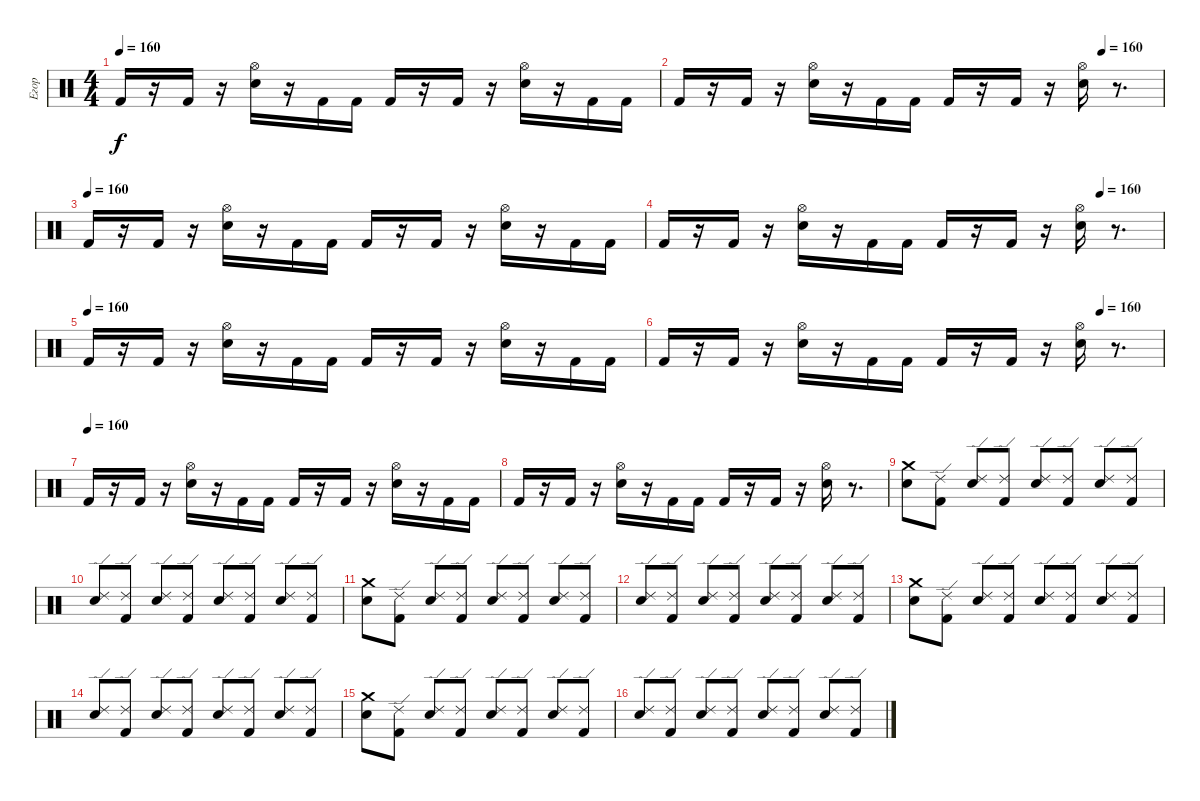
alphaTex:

\track ("Егор" "Егор") {instrument percussion}
\staff {score}
\articulation defaults
\ts (4 4)
\tempo 160
\clef neutral
\ks c "Kick (hit) 2".16{dy f}
r.16 "Kick (hit) 2".16 r.16 ("Hi-Hat (open)" "Snare (hit) 2").16 r.16 "Kick (hit) 2".16 "Kick (hit) 2".16 "Kick (hit) 2".16 r.16 "Kick (hit) 2".16 r.16 ("Hi-Hat (open)" "Snare (hit) 2").16 r.16 "Kick (hit) 2".16 "Kick (hit) 2".16 |
\tempo (160 0.875)
"Kick (hit) 2".16 r.16 "Kick (hit) 2".16 r.16 ("Hi-Hat (open)" "Snare (hit) 2").16 r.16 "Kick (hit) 2".16 "Kick (hit) 2".16 "Kick (hit) 2".16 r.16 "Kick (hit) 2".16 r.16 ("Hi-Hat (open)" "Snare (hit) 2").16 r.8{d} |
\tempo (160)
"Kick (hit) 2".16 r.16 "Kick (hit) 2".16 r.16 ("Hi-Hat (open)" "Snare (hit) 2").16 r.16 "Kick (hit) 2".16 "Kick (hit) 2".16 "Kick (hit) 2".16 r.16 "Kick (hit) 2".16 r.16 ("Hi-Hat (open)" "Snare (hit) 2").16 r.16 "Kick (hit) 2".16 "Kick (hit) 2".16 |
\tempo (160 0.875)
"Kick (hit) 2".16 r.16 "Kick (hit) 2".16 r.16 ("Hi-Hat (open)" "Snare (hit) 2").16 r.16 "Kick (hit) 2".16 "Kick (hit) 2".16 "Kick (hit) 2".16 r.16 "Kick (hit) 2".16 r.16 ("Hi-Hat (open)" "Snare (hit) 2").16 r.8{d} |
\tempo (160)
"Kick (hit) 2".16 r.16 "Kick (hit) 2".16 r.16 ("Hi-Hat (open)" "Snare (hit) 2").16 r.16 "Kick (hit) 2".16 "Kick (hit) 2".16 "Kick (hit) 2".16 r.16 "Kick (hit) 2".16 r.16 ("Hi-Hat (open)" "Snare (hit) 2").16 r.16 "Kick (hit) 2".16 "Kick (hit) 2".16 |
\tempo (160 0.875)
"Kick (hit) 2".16 r.16 "Kick (hit) 2".16 r.16 ("Hi-Hat (open)" "Snare (hit) 2").16 r.16 "Kick (hit) 2".16 "Kick (hit) 2".16 "Kick (hit) 2".16 r.16 "Kick (hit) 2".16 r.16 ("Hi-Hat (open)" "Snare (hit) 2").16 r.8{d} |
\tempo (160)
"Kick (hit) 2".16 r.16 "Kick (hit) 2".16 r.16 ("Hi-Hat (open)" "Snare (hit) 2").16 r.16 "Kick (hit) 2".16 "Kick (hit) 2".16 "Kick (hit) 2".16 r.16 "Kick (hit) 2".16 r.16 ("Hi-Hat (open)" "Snare (hit) 2").16 r.16 "Kick (hit) 2".16 "Kick (hit) 2".16 |
"Kick (hit) 2".16 r.16 "Kick (hit) 2".16 r.16 ("Hi-Hat (open)" "Snare (hit) 2").16 r.16 "Kick (hit) 2".16 "Kick (hit) 2".16 "Kick (hit) 2".16 r.16 "Kick (hit) 2".16 r.16 ("Hi-Hat (open)" "Snare (hit) 2").16 r.8{d} |
("Crash medium (hit)" "Snare (hit) 2").8 ("Ride (edge) 2" "Kick (hit) 2").8 ("Ride (edge) 2" "Snare (hit) 2").8 ("Ride (edge) 2" "Kick (hit) 2").8 ("Ride (edge) 2" "Snare (hit) 2").8 ("Ride (edge) 2" "Kick (hit) 2").8 ("Ride (edge) 2" "Snare (hit) 2").8 ("Ride (edge) 2" "Kick (hit) 2").8 |
("Ride (edge) 2" "Snare (hit) 2").8 ("Ride (edge) 2" "Kick (hit) 2").8 ("Ride (edge) 2" "Snare (hit) 2").8 ("Ride (edge) 2" "Kick (hit) 2").8 ("Ride (edge) 2" "Snare (hit) 2").8 ("Ride (edge) 2" "Kick (hit) 2").8 ("Ride (edge) 2" "Snare (hit) 2").8 ("Ride (edge) 2" "Kick (hit) 2").8 |
("Crash medium (hit)" "Snare (hit) 2").8 ("Ride (edge) 2" "Kick (hit) 2").8 ("Ride (edge) 2" "Snare (hit) 2").8 ("Ride (edge) 2" "Kick (hit) 2").8 ("Ride (edge) 2" "Snare (hit) 2").8 ("Ride (edge) 2" "Kick (hit) 2").8 ("Ride (edge) 2" "Snare (hit) 2").8 ("Ride (edge) 2" "Kick (hit) 2").8 |
("Ride (edge) 2" "Snare (hit) 2").8 ("Ride (edge) 2" "Kick (hit) 2").8 ("Ride (edge) 2" "Snare (hit) 2").8 ("Ride (edge) 2" "Kick (hit) 2").8 ("Ride (edge) 2" "Snare (hit) 2").8 ("Ride (edge) 2" "Kick (hit) 2").8 ("Ride (edge) 2" "Snare (hit) 2").8 ("Ride (edge) 2" "Kick (hit) 2").8 |
("Crash medium (hit)" "Snare (hit) 2").8 ("Ride (edge) 2" "Kick (hit) 2").8 ("Ride (edge) 2" "Snare (hit) 2").8 ("Ride (edge) 2" "Kick (hit) 2").8 ("Ride (edge) 2" "Snare (hit) 2").8 ("Ride (edge) 2" "Kick (hit) 2").8 ("Ride (edge) 2" "Snare (hit) 2").8 ("Ride (edge) 2" "Kick (hit) 2").8 |
("Ride (edge) 2" "Snare (hit) 2").8 ("Ride (edge) 2" "Kick (hit) 2").8 ("Ride (edge) 2" "Snare (hit) 2").8 ("Ride (edge) 2" "Kick (hit) 2").8 ("Ride (edge) 2" "Snare (hit) 2").8 ("Ride (edge) 2" "Kick (hit) 2").8 ("Ride (edge) 2" "Snare (hit) 2").8 ("Ride (edge) 2" "Kick (hit) 2").8 |
("Crash medium (hit)" "Snare (hit) 2").8 ("Ride (edge) 2" "Kick (hit) 2").8 ("Ride (edge) 2" "Snare (hit) 2").8 ("Ride (edge) 2" "Kick (hit) 2").8 ("Ride (edge) 2" "Snare (hit) 2").8 ("Ride (edge) 2" "Kick (hit) 2").8 ("Ride (edge) 2" "Snare (hit) 2").8 ("Ride (edge) 2" "Kick (hit) 2").8 |
("Ride (edge) 2" "Snare (hit) 2").8 ("Ride (edge) 2" "Kick (hit) 2").8 ("Ride (edge) 2" "Snare (hit) 2").8 ("Ride (edge) 2" "Kick (hit) 2").8 ("Ride (edge) 2" "Snare (hit) 2").8 ("Ride (edge) 2" "Kick (hit) 2").8 ("Ride (edge) 2" "Snare (hit) 2").8 ("Ride (edge) 2" "Kick (hit) 2").8
